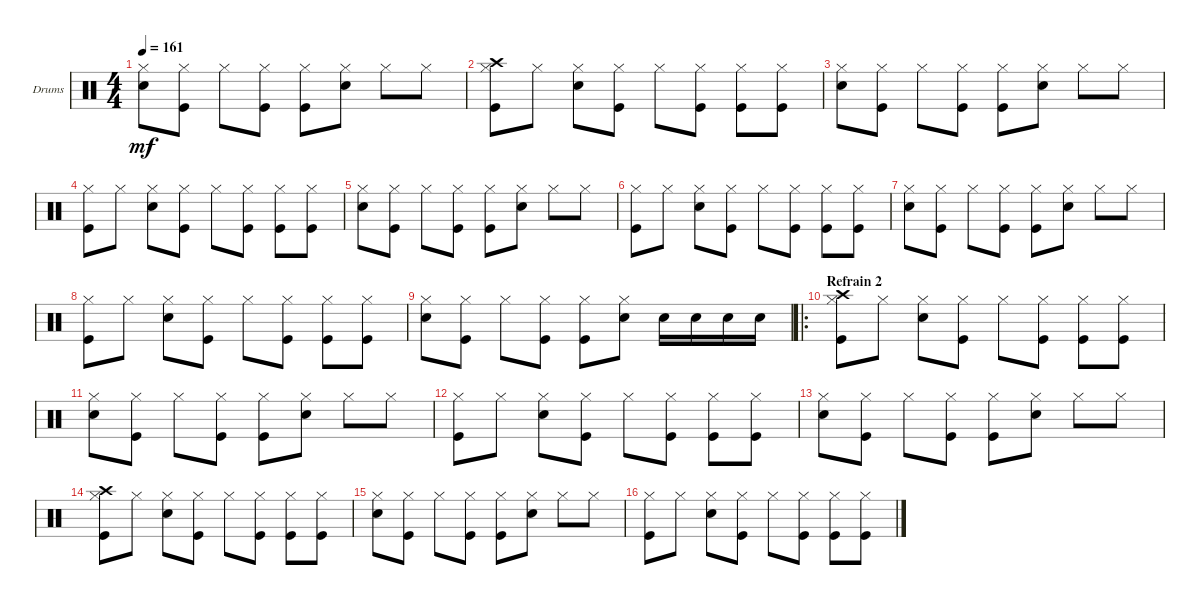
\defaultSystemsLayout 4
\bracketExtendMode groupsimilarinstruments
\firstSystemTrackNameOrientation horizontal
\otherSystemsTrackNameOrientation horizontal
\chordDiagramsInScore
\track ("Drumkit" "Drums") {instrument percussion}
\staff {score}
\articulation defaults
\ts (4 4)
\tempo 161
\clef neutral
\ks c
("Hi-Hat (closed)" "Snare (hit) 2").8{dy mf} ("Hi-Hat (closed)" "Kick (hit)").8 "Hi-Hat (closed)".8 ("Hi-Hat (closed)" "Kick (hit)").8 ("Hi-Hat (closed)" "Kick (hit)").8 ("Hi-Hat (closed)" "Snare (hit) 2").8 "Hi-Hat (closed)".8 "Hi-Hat (closed)".8 |
("Hi-Hat (closed)" "Kick (hit)" "Crash high (hit)").8 "Hi-Hat (closed)".8 ("Hi-Hat (closed)" "Snare (hit) 2").8 ("Hi-Hat (closed)" "Kick (hit)").8 "Hi-Hat (closed)".8 ("Hi-Hat (closed)" "Kick (hit)").8 ("Hi-Hat (closed)" "Kick (hit)").8 ("Hi-Hat (closed)" "Kick (hit)").8 |
("Hi-Hat (closed)" "Snare (hit) 2").8 ("Hi-Hat (closed)" "Kick (hit)").8 "Hi-Hat (closed)".8 ("Hi-Hat (closed)" "Kick (hit)").8 ("Hi-Hat (closed)" "Kick (hit)").8 ("Hi-Hat (closed)" "Snare (hit) 2").8 "Hi-Hat (closed)".8 "Hi-Hat (closed)".8 |
("Hi-Hat (closed)" "Kick (hit)").8 "Hi-Hat (closed)".8 ("Hi-Hat (closed)" "Snare (hit) 2").8 ("Hi-Hat (closed)" "Kick (hit)").8 "Hi-Hat (closed)".8 ("Hi-Hat (closed)" "Kick (hit)").8 ("Hi-Hat (closed)" "Kick (hit)").8 ("Hi-Hat (closed)" "Kick (hit)").8 |
("Hi-Hat (closed)" "Snare (hit) 2").8 ("Hi-Hat (closed)" "Kick (hit)").8 "Hi-Hat (closed)".8 ("Hi-Hat (closed)" "Kick (hit)").8 ("Hi-Hat (closed)" "Kick (hit)").8 ("Hi-Hat (closed)" "Snare (hit) 2").8 "Hi-Hat (closed)".8 "Hi-Hat (closed)".8 |
("Hi-Hat (closed)" "Kick (hit)").8 "Hi-Hat (closed)".8 ("Hi-Hat (closed)" "Snare (hit) 2").8 ("Hi-Hat (closed)" "Kick (hit)").8 "Hi-Hat (closed)".8 ("Hi-Hat (closed)" "Kick (hit)").8 ("Hi-Hat (closed)" "Kick (hit)").8 ("Hi-Hat (closed)" "Kick (hit)").8 |
("Hi-Hat (closed)" "Snare (hit) 2").8 ("Hi-Hat (closed)" "Kick (hit)").8 "Hi-Hat (closed)".8 ("Hi-Hat (closed)" "Kick (hit)").8 ("Hi-Hat (closed)" "Kick (hit)").8 ("Hi-Hat (closed)" "Snare (hit) 2").8 "Hi-Hat (closed)".8 "Hi-Hat (closed)".8 |
("Hi-Hat (closed)" "Kick (hit)").8 "Hi-Hat (closed)".8 ("Hi-Hat (closed)" "Snare (hit) 2").8 ("Hi-Hat (closed)" "Kick (hit)").8 "Hi-Hat (closed)".8 ("Hi-Hat (closed)" "Kick (hit)").8 ("Hi-Hat (closed)" "Kick (hit)").8 ("Hi-Hat (closed)" "Kick (hit)").8 |
("Hi-Hat (closed)" "Snare (hit) 2").8 ("Hi-Hat (closed)" "Kick (hit)").8 "Hi-Hat (closed)".8 ("Hi-Hat (closed)" "Kick (hit)").8 ("Hi-Hat (closed)" "Kick (hit)").8 ("Hi-Hat (closed)" "Snare (hit) 2").8 "Snare (hit) 2".16 "Snare (hit) 2".16 "Snare (hit) 2".16 "Snare (hit) 2".16 |
\ro
\section ("" "Refrain 2")
("Hi-Hat (closed)" "Kick (hit)" "Crash high (hit)").8 "Hi-Hat (closed)".8 ("Hi-Hat (closed)" "Snare (hit) 2").8 ("Hi-Hat (closed)" "Kick (hit)").8 "Hi-Hat (closed)".8 ("Hi-Hat (closed)" "Kick (hit)").8 ("Hi-Hat (closed)" "Kick (hit)").8 ("Hi-Hat (closed)" "Kick (hit)").8 |
("Hi-Hat (closed)" "Snare (hit) 2").8 ("Hi-Hat (closed)" "Kick (hit)").8 "Hi-Hat (closed)".8 ("Hi-Hat (closed)" "Kick (hit)").8 ("Hi-Hat (closed)" "Kick (hit)").8 ("Hi-Hat (closed)" "Snare (hit) 2").8 "Hi-Hat (closed)".8 "Hi-Hat (closed)".8 |
("Hi-Hat (closed)" "Kick (hit)").8 "Hi-Hat (closed)".8 ("Hi-Hat (closed)" "Snare (hit) 2").8 ("Hi-Hat (closed)" "Kick (hit)").8 "Hi-Hat (closed)".8 ("Hi-Hat (closed)" "Kick (hit)").8 ("Hi-Hat (closed)" "Kick (hit)").8 ("Hi-Hat (closed)" "Kick (hit)").8 |
("Hi-Hat (closed)" "Snare (hit) 2").8 ("Hi-Hat (closed)" "Kick (hit)").8 "Hi-Hat (closed)".8 ("Hi-Hat (closed)" "Kick (hit)").8 ("Hi-Hat (closed)" "Kick (hit)").8 ("Hi-Hat (closed)" "Snare (hit) 2").8 "Hi-Hat (closed)".8 "Hi-Hat (closed)".8 |
("Hi-Hat (closed)" "Kick (hit)" "Crash high (hit)").8 "Hi-Hat (closed)".8 ("Hi-Hat (closed)" "Snare (hit) 2").8 ("Hi-Hat (closed)" "Kick (hit)").8 "Hi-Hat (closed)".8 ("Hi-Hat (closed)" "Kick (hit)").8 ("Hi-Hat (closed)" "Kick (hit)").8 ("Hi-Hat (closed)" "Kick (hit)").8 |
("Hi-Hat (closed)" "Snare (hit) 2").8 ("Hi-Hat (closed)" "Kick (hit)").8 "Hi-Hat (closed)".8 ("Hi-Hat (closed)" "Kick (hit)").8 ("Hi-Hat (closed)" "Kick (hit)").8 ("Hi-Hat (closed)" "Snare (hit) 2").8 "Hi-Hat (closed)".8 "Hi-Hat (closed)".8 |
("Hi-Hat (closed)" "Kick (hit)").8 "Hi-Hat (closed)".8 ("Hi-Hat (closed)" "Snare (hit) 2").8 ("Hi-Hat (closed)" "Kick (hit)").8 "Hi-Hat (closed)".8 ("Hi-Hat (closed)" "Kick (hit)").8 ("Hi-Hat (closed)" "Kick (hit)").8 ("Hi-Hat (closed)" "Kick (hit)").8
